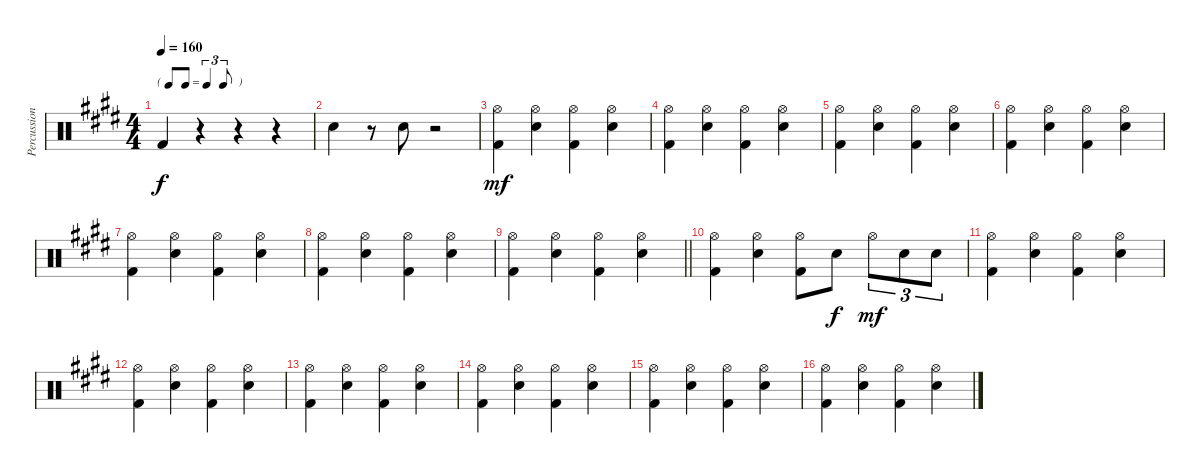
\track ("Percussion" "Percussion") {instrument percussion}
\staff {score}
\articulation defaults
\ts (4 4)
\tf triplet8th
\tempo 160
\clef neutral
\ks e "Kick (hit) 2".4{dy f}
r.4 r.4 r.4 |
"Snare (hit) 2".4 r.8 "Snare (hit) 2".8 r.2 |
("Hi-Hat (open)" "Kick (hit) 2").4{dy mf} ("Hi-Hat (open)" "Snare (hit) 2").4 ("Hi-Hat (open)" "Kick (hit) 2").4 ("Hi-Hat (open)" "Snare (hit) 2").4 |
("Hi-Hat (open)" "Kick (hit) 2").4 ("Hi-Hat (open)" "Snare (hit) 2").4 ("Hi-Hat (open)" "Kick (hit) 2").4 ("Hi-Hat (open)" "Snare (hit) 2").4 |
("Hi-Hat (open)" "Kick (hit) 2").4 ("Hi-Hat (open)" "Snare (hit) 2").4 ("Hi-Hat (open)" "Kick (hit) 2").4 ("Hi-Hat (open)" "Snare (hit) 2").4 |
("Hi-Hat (open)" "Kick (hit) 2").4 ("Hi-Hat (open)" "Snare (hit) 2").4 ("Hi-Hat (open)" "Kick (hit) 2").4 ("Hi-Hat (open)" "Snare (hit) 2").4 |
("Hi-Hat (open)" "Kick (hit) 2").4 ("Hi-Hat (open)" "Snare (hit) 2").4 ("Hi-Hat (open)" "Kick (hit) 2").4 ("Hi-Hat (open)" "Snare (hit) 2").4 |
("Hi-Hat (open)" "Kick (hit) 2").4 ("Hi-Hat (open)" "Snare (hit) 2").4 ("Hi-Hat (open)" "Kick (hit) 2").4 ("Hi-Hat (open)" "Snare (hit) 2").4 |
\barLineRight lightlight
("Hi-Hat (open)" "Kick (hit) 2").4 ("Hi-Hat (open)" "Snare (hit) 2").4 ("Hi-Hat (open)" "Kick (hit) 2").4 ("Hi-Hat (open)" "Snare (hit) 2").4 |
("Hi-Hat (open)" "Kick (hit) 2").4 ("Hi-Hat (open)" "Snare (hit) 2").4 ("Hi-Hat (open)" "Kick (hit) 2").8 "Snare (hit) 2".8{dy f} "Hi-Hat (open)".8{tu (3 2) dy mf} "Snare (hit) 2".8{tu (3 2)} "Snare (hit) 2".8{tu (3 2)} |
("Hi-Hat (open)" "Kick (hit) 2").4 ("Hi-Hat (open)" "Snare (hit) 2").4 ("Hi-Hat (open)" "Kick (hit) 2").4 ("Hi-Hat (open)" "Snare (hit) 2").4 |
("Hi-Hat (open)" "Kick (hit) 2").4 ("Hi-Hat (open)" "Snare (hit) 2").4 ("Hi-Hat (open)" "Kick (hit) 2").4 ("Hi-Hat (open)" "Snare (hit) 2").4 |
("Hi-Hat (open)" "Kick (hit) 2").4 ("Hi-Hat (open)" "Snare (hit) 2").4 ("Hi-Hat (open)" "Kick (hit) 2").4 ("Hi-Hat (open)" "Snare (hit) 2").4 |
("Hi-Hat (open)" "Kick (hit) 2").4 ("Hi-Hat (open)" "Snare (hit) 2").4 ("Hi-Hat (open)" "Kick (hit) 2").4 ("Hi-Hat (open)" "Snare (hit) 2").4 |
("Hi-Hat (open)" "Kick (hit) 2").4 ("Hi-Hat (open)" "Snare (hit) 2").4 ("Hi-Hat (open)" "Kick (hit) 2").4 ("Hi-Hat (open)" "Snare (hit) 2").4 |
("Hi-Hat (open)" "Kick (hit) 2").4 ("Hi-Hat (open)" "Snare (hit) 2").4 ("Hi-Hat (open)" "Kick (hit) 2").4 ("Hi-Hat (open)" "Snare (hit) 2").4
